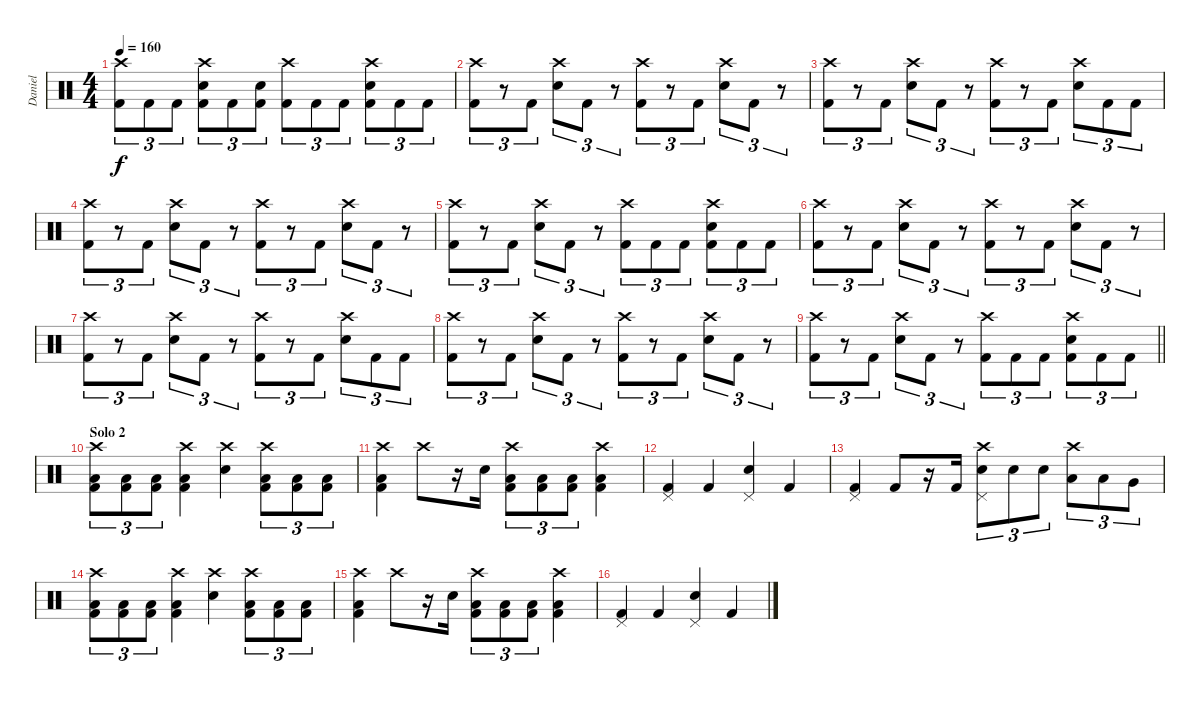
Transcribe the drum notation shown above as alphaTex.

\track ("Daniel" "Daniel") {instrument percussion}
\staff {score}
\articulation defaults
\ts (4 4)
\tempo 160
\clef neutral
\ks c
("Crash high (hit)" "Kick (hit) 2").8{tu (3 2) dy f} "Kick (hit) 2".8{tu (3 2)} "Kick (hit) 2".8{tu (3 2)} ("Crash high (hit)" "Electric Snare (hit)" "Kick (hit) 2").8{tu (3 2)} "Kick (hit) 2".8{tu (3 2)} ("Electric Snare (hit)" "Kick (hit) 2").8{tu (3 2)} ("Crash high (hit)" "Kick (hit) 2").8{tu (3 2)} "Kick (hit) 2".8{tu (3 2)} "Kick (hit) 2".8{tu (3 2)} ("Crash high (hit)" "Electric Snare (hit)" "Kick (hit) 2").8{tu (3 2)} "Kick (hit) 2".8{tu (3 2)} "Kick (hit) 2".8{tu (3 2)} |
("Crash high (hit)" "Kick (hit) 2").8{tu (3 2)} r.8{tu (3 2)} "Kick (hit) 2".8{tu (3 2)} ("Crash high (hit)" "Electric Snare (hit)").8{tu (3 2)} "Kick (hit) 2".8{tu (3 2)} r.8{tu (3 2)} ("Crash high (hit)" "Kick (hit) 2").8{tu (3 2)} r.8{tu (3 2)} "Kick (hit) 2".8{tu (3 2)} ("Crash high (hit)" "Electric Snare (hit)").8{tu (3 2)} "Kick (hit) 2".8{tu (3 2)} r.8{tu (3 2)} |
("Crash high (hit)" "Kick (hit) 2").8{tu (3 2)} r.8{tu (3 2)} "Kick (hit) 2".8{tu (3 2)} ("Crash high (hit)" "Electric Snare (hit)").8{tu (3 2)} "Kick (hit) 2".8{tu (3 2)} r.8{tu (3 2)} ("Crash high (hit)" "Kick (hit) 2").8{tu (3 2)} r.8{tu (3 2)} "Kick (hit) 2".8{tu (3 2)} ("Crash high (hit)" "Electric Snare (hit)").8{tu (3 2)} "Kick (hit) 2".8{tu (3 2)} "Kick (hit) 2".8{tu (3 2)} |
("Crash high (hit)" "Kick (hit) 2").8{tu (3 2)} r.8{tu (3 2)} "Kick (hit) 2".8{tu (3 2)} ("Crash high (hit)" "Electric Snare (hit)").8{tu (3 2)} "Kick (hit) 2".8{tu (3 2)} r.8{tu (3 2)} ("Crash high (hit)" "Kick (hit) 2").8{tu (3 2)} r.8{tu (3 2)} "Kick (hit) 2".8{tu (3 2)} ("Crash high (hit)" "Electric Snare (hit)").8{tu (3 2)} "Kick (hit) 2".8{tu (3 2)} r.8{tu (3 2)} |
("Crash high (hit)" "Kick (hit) 2").8{tu (3 2)} r.8{tu (3 2)} "Kick (hit) 2".8{tu (3 2)} ("Crash high (hit)" "Electric Snare (hit)").8{tu (3 2)} "Kick (hit) 2".8{tu (3 2)} r.8{tu (3 2)} ("Crash high (hit)" "Kick (hit) 2").8{tu (3 2)} "Kick (hit) 2".8{tu (3 2)} "Kick (hit) 2".8{tu (3 2)} ("Crash high (hit)" "Electric Snare (hit)" "Kick (hit) 2").8{tu (3 2)} "Kick (hit) 2".8{tu (3 2)} "Kick (hit) 2".8{tu (3 2)} |
("Crash high (hit)" "Kick (hit) 2").8{tu (3 2)} r.8{tu (3 2)} "Kick (hit) 2".8{tu (3 2)} ("Crash high (hit)" "Electric Snare (hit)").8{tu (3 2)} "Kick (hit) 2".8{tu (3 2)} r.8{tu (3 2)} ("Crash high (hit)" "Kick (hit) 2").8{tu (3 2)} r.8{tu (3 2)} "Kick (hit) 2".8{tu (3 2)} ("Crash high (hit)" "Electric Snare (hit)").8{tu (3 2)} "Kick (hit) 2".8{tu (3 2)} r.8{tu (3 2)} |
("Crash high (hit)" "Kick (hit) 2").8{tu (3 2)} r.8{tu (3 2)} "Kick (hit) 2".8{tu (3 2)} ("Crash high (hit)" "Electric Snare (hit)").8{tu (3 2)} "Kick (hit) 2".8{tu (3 2)} r.8{tu (3 2)} ("Crash high (hit)" "Kick (hit) 2").8{tu (3 2)} r.8{tu (3 2)} "Kick (hit) 2".8{tu (3 2)} ("Crash high (hit)" "Electric Snare (hit)").8{tu (3 2)} "Kick (hit) 2".8{tu (3 2)} "Kick (hit) 2".8{tu (3 2)} |
("Crash high (hit)" "Kick (hit) 2").8{tu (3 2)} r.8{tu (3 2)} "Kick (hit) 2".8{tu (3 2)} ("Crash high (hit)" "Electric Snare (hit)").8{tu (3 2)} "Kick (hit) 2".8{tu (3 2)} r.8{tu (3 2)} ("Crash high (hit)" "Kick (hit) 2").8{tu (3 2)} r.8{tu (3 2)} "Kick (hit) 2".8{tu (3 2)} ("Crash high (hit)" "Electric Snare (hit)").8{tu (3 2)} "Kick (hit) 2".8{tu (3 2)} r.8{tu (3 2)} |
\barLineRight lightlight
("Crash high (hit)" "Kick (hit) 2").8{tu (3 2)} r.8{tu (3 2)} "Kick (hit) 2".8{tu (3 2)} ("Crash high (hit)" "Electric Snare (hit)").8{tu (3 2)} "Kick (hit) 2".8{tu (3 2)} r.8{tu (3 2)} ("Crash high (hit)" "Kick (hit) 2").8{tu (3 2)} "Kick (hit) 2".8{tu (3 2)} "Kick (hit) 2".8{tu (3 2)} ("Crash high (hit)" "Electric Snare (hit)" "Kick (hit) 2").8{tu (3 2)} "Kick (hit) 2".8{tu (3 2)} "Kick (hit) 2".8{tu (3 2)} |
\section ("" "Solo 2")
("Crash high (hit)" "Low Floor Tom (hit)" "Kick (hit) 2").8{tu (3 2)} ("Low Floor Tom (hit)" "Kick (hit) 2").8{tu (3 2)} ("Low Floor Tom (hit)" "Kick (hit) 2").8{tu (3 2)} ("Crash high (hit)" "Low Floor Tom (hit)" "Kick (hit) 2").4 ("Crash high (hit)" "Electric Snare (hit)").4 ("Crash high (hit)" "Low Floor Tom (hit)" "Kick (hit) 2").8{tu (3 2)} ("Low Floor Tom (hit)" "Kick (hit) 2").8{tu (3 2)} ("Low Floor Tom (hit)" "Kick (hit) 2").8{tu (3 2)} |
("Crash high (hit)" "Low Floor Tom (hit)" "Kick (hit) 2").4 "Crash high (hit)".8 r.16 "Electric Snare (hit)".16 ("Crash high (hit)" "Low Floor Tom (hit)" "Kick (hit) 2").8{tu (3 2)} ("Low Floor Tom (hit)" "Kick (hit) 2").8{tu (3 2)} ("Low Floor Tom (hit)" "Kick (hit) 2").8{tu (3 2)} ("Crash high (hit)" "Low Floor Tom (hit)" "Kick (hit) 2").4 |
("Pedal Hi-Hat (hit)" "Kick (hit) 2").4 "Kick (hit) 2".4 ("Electric Snare (hit)" "Pedal Hi-Hat (hit)").4 "Kick (hit) 2".4 |
("Pedal Hi-Hat (hit)" "Kick (hit) 2").4 "Kick (hit) 2".8 r.16 "Kick (hit) 2".16 ("Crash high (hit)" "Electric Snare (hit)" "Pedal Hi-Hat (hit)").8{tu (3 2)} "Electric Snare (hit)".8{tu (3 2)} "Electric Snare (hit)".8{tu (3 2)} ("Crash high (hit)" "Low Tom (hit)").8{tu (3 2)} "Low Tom (hit)".8{tu (3 2)} "Very Low Tom (hit)".8{tu (3 2)} |
("Crash high (hit)" "Low Floor Tom (hit)" "Kick (hit) 2").8{tu (3 2)} ("Low Floor Tom (hit)" "Kick (hit) 2").8{tu (3 2)} ("Low Floor Tom (hit)" "Kick (hit) 2").8{tu (3 2)} ("Crash high (hit)" "Low Floor Tom (hit)" "Kick (hit) 2").4 ("Crash high (hit)" "Electric Snare (hit)").4 ("Crash high (hit)" "Low Floor Tom (hit)" "Kick (hit) 2").8{tu (3 2)} ("Low Floor Tom (hit)" "Kick (hit) 2").8{tu (3 2)} ("Low Floor Tom (hit)" "Kick (hit) 2").8{tu (3 2)} |
("Crash high (hit)" "Low Floor Tom (hit)" "Kick (hit) 2").4 "Crash high (hit)".8 r.16 "Electric Snare (hit)".16 ("Crash high (hit)" "Low Floor Tom (hit)" "Kick (hit) 2").8{tu (3 2)} ("Low Floor Tom (hit)" "Kick (hit) 2").8{tu (3 2)} ("Low Floor Tom (hit)" "Kick (hit) 2").8{tu (3 2)} ("Crash high (hit)" "Low Floor Tom (hit)" "Kick (hit) 2").4 |
("Pedal Hi-Hat (hit)" "Kick (hit) 2").4 "Kick (hit) 2".4 ("Electric Snare (hit)" "Pedal Hi-Hat (hit)").4 "Kick (hit) 2".4
